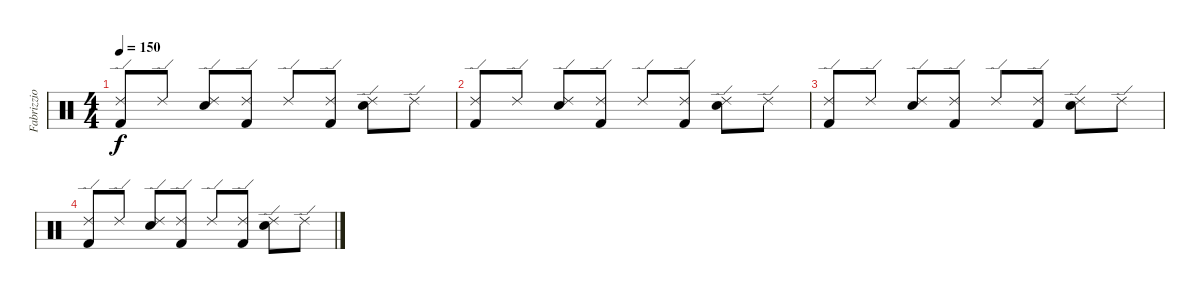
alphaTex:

\track ("Fabrizzio" "Fabrizzio") {instrument percussion}
\staff {score}
\articulation defaults
\ts (4 4)
\tempo 150
\clef neutral
\ks c
("Ride (edge) 2" "Kick (hit) 2").8{dy f} "Ride (edge) 2".8 ("Ride (edge) 2" "Electric Snare (hit)").8 ("Ride (edge) 2" "Kick (hit) 2").8 "Ride (edge) 2".8 ("Ride (edge) 2" "Kick (hit) 2").8 ("Ride (edge) 2" "Electric Snare (hit)").8 "Ride (edge) 2".8 |
("Ride (edge) 2" "Kick (hit) 2").8 "Ride (edge) 2".8 ("Ride (edge) 2" "Electric Snare (hit)").8 ("Ride (edge) 2" "Kick (hit) 2").8 "Ride (edge) 2".8 ("Ride (edge) 2" "Kick (hit) 2").8 ("Ride (edge) 2" "Electric Snare (hit)").8 "Ride (edge) 2".8 |
("Ride (edge) 2" "Kick (hit) 2").8 "Ride (edge) 2".8 ("Ride (edge) 2" "Electric Snare (hit)").8 ("Ride (edge) 2" "Kick (hit) 2").8 "Ride (edge) 2".8 ("Ride (edge) 2" "Kick (hit) 2").8 ("Ride (edge) 2" "Electric Snare (hit)").8 "Ride (edge) 2".8 |
("Ride (edge) 2" "Kick (hit) 2").8 "Ride (edge) 2".8 ("Ride (edge) 2" "Electric Snare (hit)").8 ("Ride (edge) 2" "Kick (hit) 2").8 "Ride (edge) 2".8 ("Ride (edge) 2" "Kick (hit) 2").8 ("Ride (edge) 2" "Electric Snare (hit)").8 "Ride (edge) 2".8
